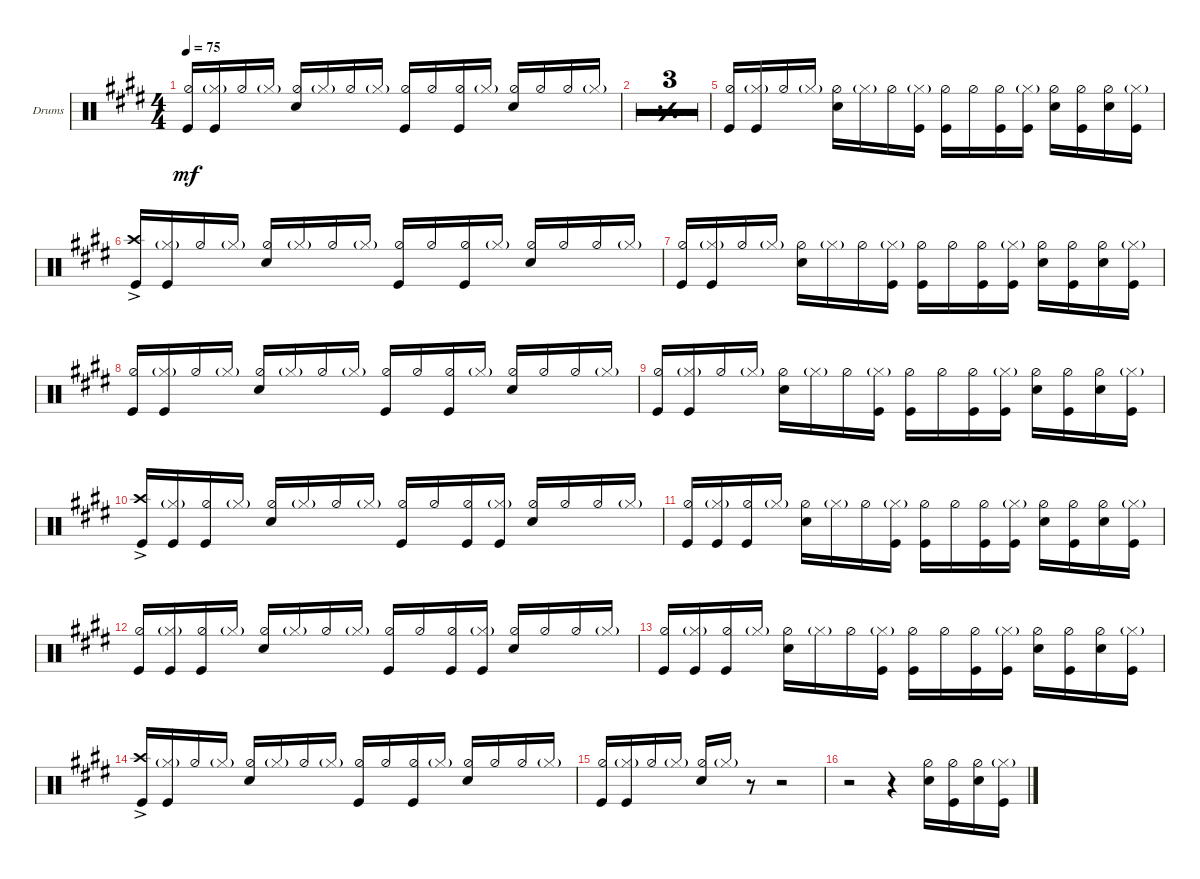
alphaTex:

\defaultSystemsLayout 4
\bracketExtendMode groupsimilarinstruments
\firstSystemTrackNameOrientation horizontal
\otherSystemsTrackNameOrientation horizontal
\track ("Drum Kit" "Drums") {multiBarRest instrument percussion}
\staff {score}
\articulation defaults
\ts (4 4)
\tempo 75
\clef neutral
\ks e
("Hi-Hat (half)" "Kick (hit)").16{dy mf beam invert} ("Hi-Hat (closed)"{g} "Kick (hit)").16 "Hi-Hat (half)".16 "Hi-Hat (closed)"{g}.16 ("Snare (hit) 2" "Hi-Hat (half)").16{beam invert} "Hi-Hat (closed)"{g}.16 "Hi-Hat (half)".16 "Hi-Hat (closed)"{g}.16 ("Hi-Hat (half)" "Kick (hit)").16{beam invert} "Hi-Hat (half)".16 ("Hi-Hat (half)" "Kick (hit)").16 "Hi-Hat (closed)"{g}.16 ("Hi-Hat (half)" "Snare (hit) 2").16{beam invert} "Hi-Hat (half)".16 "Hi-Hat (half)".16 "Hi-Hat (closed)"{g}.16 |
\simile simple
|
|
|
\simile none
("Hi-Hat (half)" "Kick (hit)").16{beam invert} ("Hi-Hat (closed)"{g} "Kick (hit)").16 "Hi-Hat (half)".16 "Hi-Hat (closed)"{g}.16 ("Snare (hit) 2" "Hi-Hat (half)").16 "Hi-Hat (closed)"{g}.16 "Hi-Hat (half)".16 ("Hi-Hat (closed)"{g} "Kick (hit)").16 ("Hi-Hat (half)" "Kick (hit)").16 "Hi-Hat (half)".16 ("Hi-Hat (half)" "Kick (hit)").16 ("Hi-Hat (closed)"{g} "Kick (hit)").16 ("Hi-Hat (half)" "Snare (hit) 2").16 ("Hi-Hat (half)" "Kick (hit)").16 ("Hi-Hat (half)" "Snare (hit) 2").16 ("Hi-Hat (closed)"{g} "Kick (hit)").16 |
("Kick (hit)" "Crash high (hit)"{ac}).16 ("Hi-Hat (closed)"{g} "Kick (hit)").16 "Hi-Hat (half)".16 "Hi-Hat (closed)"{g}.16 ("Snare (hit) 2" "Hi-Hat (half)").16{beam invert} "Hi-Hat (closed)"{g}.16 "Hi-Hat (half)".16 "Hi-Hat (closed)"{g}.16 ("Hi-Hat (half)" "Kick (hit)").16{beam invert} "Hi-Hat (half)".16 ("Hi-Hat (half)" "Kick (hit)").16 "Hi-Hat (closed)"{g}.16 ("Hi-Hat (half)" "Snare (hit) 2").16{beam invert} "Hi-Hat (half)".16 "Hi-Hat (half)".16 "Hi-Hat (closed)"{g}.16 |
("Hi-Hat (half)" "Kick (hit)").16{beam invert} ("Hi-Hat (closed)"{g} "Kick (hit)").16 "Hi-Hat (half)".16 "Hi-Hat (closed)"{g}.16 ("Snare (hit) 2" "Hi-Hat (half)").16 "Hi-Hat (closed)"{g}.16 "Hi-Hat (half)".16 ("Hi-Hat (closed)"{g} "Kick (hit)").16 ("Hi-Hat (half)" "Kick (hit)").16 "Hi-Hat (half)".16 ("Hi-Hat (half)" "Kick (hit)").16 ("Hi-Hat (closed)"{g} "Kick (hit)").16 ("Hi-Hat (half)" "Snare (hit) 2").16 ("Hi-Hat (half)" "Kick (hit)").16 ("Hi-Hat (half)" "Snare (hit) 2").16 ("Hi-Hat (closed)"{g} "Kick (hit)").16 |
("Kick (hit)" "Hi-Hat (half)").16{beam invert} ("Hi-Hat (closed)"{g} "Kick (hit)").16 "Hi-Hat (half)".16 "Hi-Hat (closed)"{g}.16 ("Snare (hit) 2" "Hi-Hat (half)").16{beam invert} "Hi-Hat (closed)"{g}.16 "Hi-Hat (half)".16 "Hi-Hat (closed)"{g}.16 ("Hi-Hat (half)" "Kick (hit)").16{beam invert} "Hi-Hat (half)".16 ("Hi-Hat (half)" "Kick (hit)").16 "Hi-Hat (closed)"{g}.16 ("Hi-Hat (half)" "Snare (hit) 2").16{beam invert} "Hi-Hat (half)".16 "Hi-Hat (half)".16 "Hi-Hat (closed)"{g}.16 |
("Hi-Hat (half)" "Kick (hit)").16{beam invert} ("Hi-Hat (closed)"{g} "Kick (hit)").16 "Hi-Hat (half)".16 "Hi-Hat (closed)"{g}.16 ("Snare (hit) 2" "Hi-Hat (half)").16 "Hi-Hat (closed)"{g}.16 "Hi-Hat (half)".16 ("Hi-Hat (closed)"{g} "Kick (hit)").16 ("Hi-Hat (half)" "Kick (hit)").16 "Hi-Hat (half)".16 ("Hi-Hat (half)" "Kick (hit)").16 ("Hi-Hat (closed)"{g} "Kick (hit)").16 ("Hi-Hat (half)" "Snare (hit) 2").16 ("Hi-Hat (half)" "Kick (hit)").16 ("Hi-Hat (half)" "Snare (hit) 2").16 ("Hi-Hat (closed)"{g} "Kick (hit)").16 |
("Kick (hit)" "Crash high (hit)"{ac}).16 ("Hi-Hat (closed)"{g} "Kick (hit)").16 ("Hi-Hat (half)" "Kick (hit)").16 "Hi-Hat (closed)"{g}.16 ("Snare (hit) 2" "Hi-Hat (half)").16{beam invert} "Hi-Hat (closed)"{g}.16 "Hi-Hat (half)".16 "Hi-Hat (closed)"{g}.16 ("Hi-Hat (half)" "Kick (hit)").16 "Hi-Hat (half)".16 ("Hi-Hat (half)" "Kick (hit)").16 ("Hi-Hat (closed)"{g} "Kick (hit)").16 ("Hi-Hat (half)" "Snare (hit) 2").16{beam invert} "Hi-Hat (half)".16 "Hi-Hat (half)".16 "Hi-Hat (closed)"{g}.16 |
("Hi-Hat (half)" "Kick (hit)").16{beam invert} ("Hi-Hat (closed)"{g} "Kick (hit)").16 ("Hi-Hat (half)" "Kick (hit)").16 "Hi-Hat (closed)"{g}.16 ("Snare (hit) 2" "Hi-Hat (half)").16 "Hi-Hat (closed)"{g}.16 "Hi-Hat (half)".16 ("Hi-Hat (closed)"{g} "Kick (hit)").16 ("Hi-Hat (half)" "Kick (hit)").16 "Hi-Hat (half)".16 ("Hi-Hat (half)" "Kick (hit)").16 ("Hi-Hat (closed)"{g} "Kick (hit)").16 ("Hi-Hat (half)" "Snare (hit) 2").16 ("Hi-Hat (half)" "Kick (hit)").16 ("Hi-Hat (half)" "Snare (hit) 2").16 ("Hi-Hat (closed)"{g} "Kick (hit)").16 |
("Kick (hit)" "Hi-Hat (half)").16{beam invert} ("Hi-Hat (closed)"{g} "Kick (hit)").16 ("Hi-Hat (half)" "Kick (hit)").16 "Hi-Hat (closed)"{g}.16 ("Snare (hit) 2" "Hi-Hat (half)").16{beam invert} "Hi-Hat (closed)"{g}.16 "Hi-Hat (half)".16 "Hi-Hat (closed)"{g}.16 ("Hi-Hat (half)" "Kick (hit)").16 "Hi-Hat (half)".16 ("Hi-Hat (half)" "Kick (hit)").16 ("Hi-Hat (closed)"{g} "Kick (hit)").16 ("Hi-Hat (half)" "Snare (hit) 2").16{beam invert} "Hi-Hat (half)".16 "Hi-Hat (half)".16 "Hi-Hat (closed)"{g}.16 |
("Hi-Hat (half)" "Kick (hit)").16{beam invert} ("Hi-Hat (closed)"{g} "Kick (hit)").16 ("Hi-Hat (half)" "Kick (hit)").16 "Hi-Hat (closed)"{g}.16 ("Snare (hit) 2" "Hi-Hat (half)").16 "Hi-Hat (closed)"{g}.16 "Hi-Hat (half)".16 ("Hi-Hat (closed)"{g} "Kick (hit)").16 ("Hi-Hat (half)" "Kick (hit)").16 "Hi-Hat (half)".16 ("Hi-Hat (half)" "Kick (hit)").16 ("Hi-Hat (closed)"{g} "Kick (hit)").16 ("Hi-Hat (half)" "Snare (hit) 2").16 ("Hi-Hat (half)" "Kick (hit)").16 ("Hi-Hat (half)" "Snare (hit) 2").16 ("Hi-Hat (closed)"{g} "Kick (hit)").16 |
("Kick (hit)" "Crash high (hit)"{ac}).16 ("Hi-Hat (closed)"{g} "Kick (hit)").16 "Hi-Hat (half)".16 "Hi-Hat (closed)"{g}.16 ("Snare (hit) 2" "Hi-Hat (half)").16{beam invert} "Hi-Hat (closed)"{g}.16 "Hi-Hat (half)".16 "Hi-Hat (closed)"{g}.16 ("Hi-Hat (half)" "Kick (hit)").16{beam invert} "Hi-Hat (half)".16 ("Hi-Hat (half)" "Kick (hit)").16 "Hi-Hat (closed)"{g}.16 ("Hi-Hat (half)" "Snare (hit) 2").16{beam invert} "Hi-Hat (half)".16 "Hi-Hat (half)".16 "Hi-Hat (closed)"{g}.16 |
("Hi-Hat (half)" "Kick (hit)").16{beam invert} ("Hi-Hat (closed)"{g} "Kick (hit)").16 "Hi-Hat (half)".16 "Hi-Hat (closed)"{g}.16 ("Snare (hit) 2" "Hi-Hat (half)").16{beam invert} "Hi-Hat (closed)"{g}.16 r.8 r.2 |
r.2 r.4 ("Hi-Hat (half)" "Snare (hit) 2").16 ("Hi-Hat (half)" "Kick (hit)").16 ("Hi-Hat (half)" "Snare (hit) 2").16 ("Hi-Hat (closed)"{g} "Kick (hit)").16
